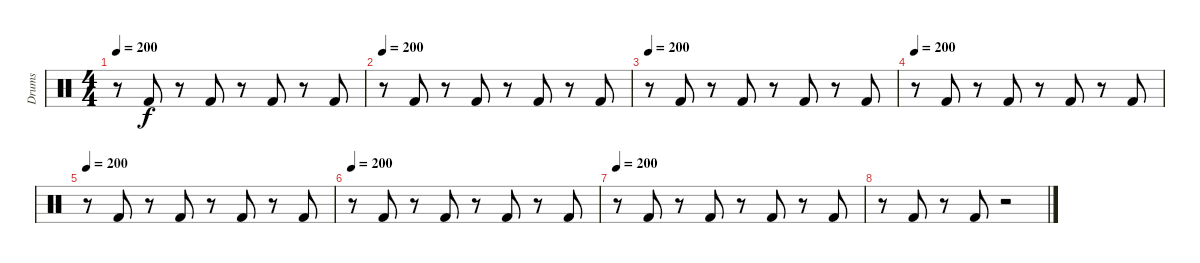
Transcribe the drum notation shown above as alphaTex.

\track ("Drums" "Drums") {instrument percussion}
\staff {score}
\articulation defaults
\ts (4 4)
\tempo 200
\clef neutral
\ks c
r.8{dy f} "Kick (hit) 2".8 r.8 "Kick (hit) 2".8 r.8 "Kick (hit) 2".8 r.8 "Kick (hit) 2".8 |
\tempo 200
r.8 "Kick (hit) 2".8 r.8 "Kick (hit) 2".8 r.8 "Kick (hit) 2".8 r.8 "Kick (hit) 2".8 |
\tempo 200
r.8 "Kick (hit) 2".8 r.8 "Kick (hit) 2".8 r.8 "Kick (hit) 2".8 r.8 "Kick (hit) 2".8 |
\tempo 200
r.8 "Kick (hit) 2".8 r.8 "Kick (hit) 2".8 r.8 "Kick (hit) 2".8 r.8 "Kick (hit) 2".8 |
\tempo 200
r.8 "Kick (hit) 2".8 r.8 "Kick (hit) 2".8 r.8 "Kick (hit) 2".8 r.8 "Kick (hit) 2".8 |
\tempo 200
r.8 "Kick (hit) 2".8 r.8 "Kick (hit) 2".8 r.8 "Kick (hit) 2".8 r.8 "Kick (hit) 2".8 |
\tempo 200
r.8 "Kick (hit) 2".8 r.8 "Kick (hit) 2".8 r.8 "Kick (hit) 2".8 r.8 "Kick (hit) 2".8 |
r.8 "Kick (hit) 2".8 r.8 "Kick (hit) 2".8 r.2
